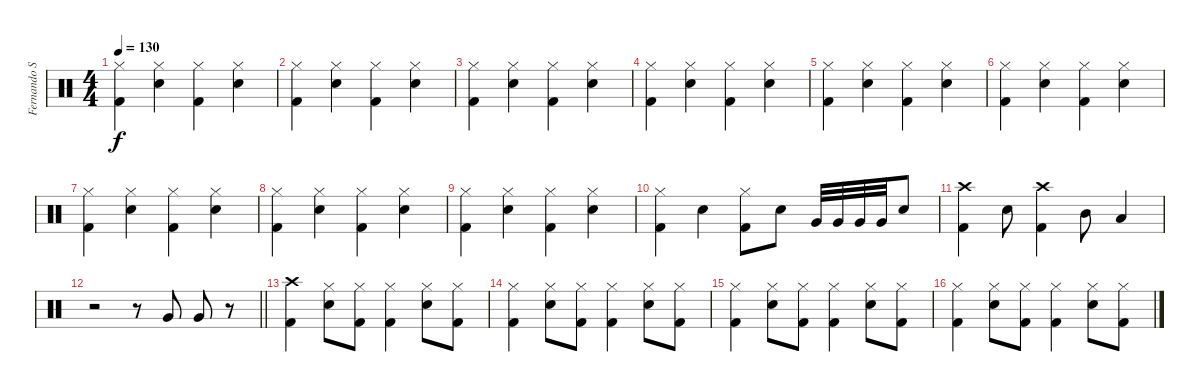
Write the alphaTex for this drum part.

\track ("Fernando Scarcella" "Fernando S") {instrument percussion}
\staff {score}
\articulation defaults
\ts (4 4)
\tempo 130
\clef neutral
\ks c
("Hi-Hat (closed)" "Kick (hit) 2").4{dy f} ("Hi-Hat (closed)" "Snare (hit) 2").4 ("Hi-Hat (closed)" "Kick (hit) 2").4 ("Hi-Hat (closed)" "Snare (hit) 2").4 |
("Hi-Hat (closed)" "Kick (hit) 2").4 ("Hi-Hat (closed)" "Snare (hit) 2").4 ("Hi-Hat (closed)" "Kick (hit) 2").4 ("Hi-Hat (closed)" "Snare (hit) 2").4 |
("Hi-Hat (closed)" "Kick (hit) 2").4 ("Hi-Hat (closed)" "Snare (hit) 2").4 ("Hi-Hat (closed)" "Kick (hit) 2").4 ("Hi-Hat (closed)" "Snare (hit) 2").4 |
("Hi-Hat (closed)" "Kick (hit) 2").4 ("Hi-Hat (closed)" "Snare (hit) 2").4 ("Hi-Hat (closed)" "Kick (hit) 2").4 ("Hi-Hat (closed)" "Snare (hit) 2").4 |
("Hi-Hat (closed)" "Kick (hit) 2").4 ("Hi-Hat (closed)" "Snare (hit) 2").4 ("Hi-Hat (closed)" "Kick (hit) 2").4 ("Hi-Hat (closed)" "Snare (hit) 2").4 |
("Hi-Hat (closed)" "Kick (hit) 2").4 ("Hi-Hat (closed)" "Snare (hit) 2").4 ("Hi-Hat (closed)" "Kick (hit) 2").4 ("Hi-Hat (closed)" "Snare (hit) 2").4 |
("Hi-Hat (closed)" "Kick (hit) 2").4 ("Hi-Hat (closed)" "Snare (hit) 2").4 ("Hi-Hat (closed)" "Kick (hit) 2").4 ("Hi-Hat (closed)" "Snare (hit) 2").4 |
("Hi-Hat (closed)" "Kick (hit) 2").4 ("Hi-Hat (closed)" "Snare (hit) 2").4 ("Hi-Hat (closed)" "Kick (hit) 2").4 ("Hi-Hat (closed)" "Snare (hit) 2").4 |
("Hi-Hat (closed)" "Kick (hit) 2").4 ("Hi-Hat (closed)" "Snare (hit) 2").4 ("Hi-Hat (closed)" "Kick (hit) 2").4 ("Hi-Hat (closed)" "Snare (hit) 2").4 |
("Hi-Hat (closed)" "Kick (hit) 2").4 "Snare (hit) 2".4 ("Hi-Hat (closed)" "Kick (hit) 2").8 "Snare (hit) 2".8 "Very Low Tom (hit)".32 "Very Low Tom (hit)".32 "Very Low Tom (hit)".32 "Very Low Tom (hit)".32 "Snare (hit) 2".8 |
("Crash high (hit)" "Kick (hit) 2").4 "Snare (hit) 2".8 ("Crash high (hit)" "Kick (hit) 2").4 "Mid Tom (hit)".8 "Low Tom (hit)".4 |
\barLineRight lightlight
r.2 r.8 "Very Low Tom (hit)".8 "Very Low Tom (hit)".8 r.8 |
("Crash high (hit)" "Kick (hit) 2").4 ("Hi-Hat (closed)" "Snare (hit) 2").8 ("Hi-Hat (closed)" "Kick (hit) 2").8 ("Hi-Hat (closed)" "Kick (hit) 2").4 ("Hi-Hat (closed)" "Snare (hit) 2").8 ("Hi-Hat (closed)" "Kick (hit) 2").8 |
("Hi-Hat (closed)" "Kick (hit) 2").4 ("Hi-Hat (closed)" "Snare (hit) 2").8 ("Hi-Hat (closed)" "Kick (hit) 2").8 ("Hi-Hat (closed)" "Kick (hit) 2").4 ("Hi-Hat (closed)" "Snare (hit) 2").8 ("Hi-Hat (closed)" "Kick (hit) 2").8 |
("Hi-Hat (closed)" "Kick (hit) 2").4 ("Hi-Hat (closed)" "Snare (hit) 2").8 ("Hi-Hat (closed)" "Kick (hit) 2").8 ("Hi-Hat (closed)" "Kick (hit) 2").4 ("Hi-Hat (closed)" "Snare (hit) 2").8 ("Hi-Hat (closed)" "Kick (hit) 2").8 |
("Hi-Hat (closed)" "Kick (hit) 2").4 ("Hi-Hat (closed)" "Snare (hit) 2").8 ("Hi-Hat (closed)" "Kick (hit) 2").8 ("Hi-Hat (closed)" "Kick (hit) 2").4 ("Hi-Hat (closed)" "Snare (hit) 2").8 ("Hi-Hat (closed)" "Kick (hit) 2").8
